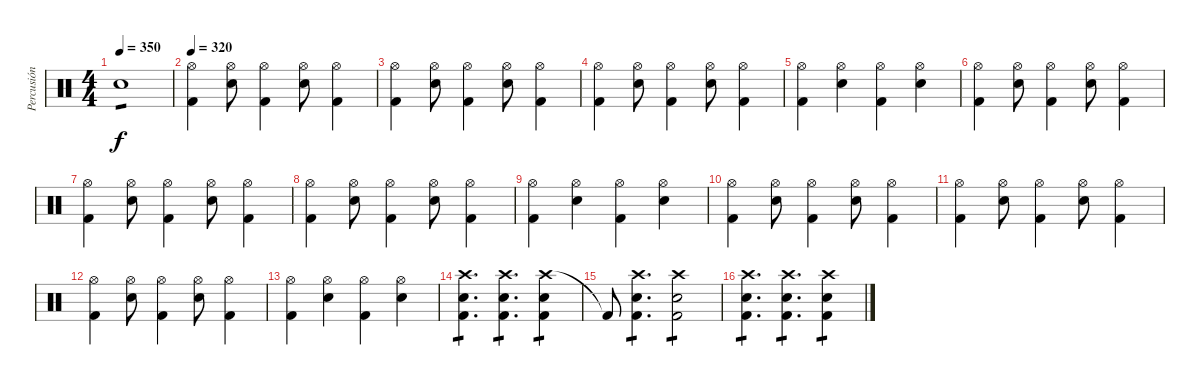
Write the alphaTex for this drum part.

\track ("Percusión" "Percusión") {instrument percussion}
\staff {score}
\articulation defaults
\ts (4 4)
\tempo 350
\clef neutral
\ks c "Electric Snare (hit)".1{tp 1 dy f}
|
\tempo 320
("Hi-Hat (open)" "Kick (hit) 2").4 ("Hi-Hat (open)" "Electric Snare (hit)").8 ("Hi-Hat (open)" "Kick (hit) 2").4 ("Hi-Hat (open)" "Electric Snare (hit)").8 ("Hi-Hat (open)" "Kick (hit) 2").4 |
("Hi-Hat (open)" "Kick (hit) 2").4 ("Hi-Hat (open)" "Electric Snare (hit)").8 ("Hi-Hat (open)" "Kick (hit) 2").4 ("Hi-Hat (open)" "Electric Snare (hit)").8 ("Hi-Hat (open)" "Kick (hit) 2").4 |
("Hi-Hat (open)" "Kick (hit) 2").4 ("Hi-Hat (open)" "Electric Snare (hit)").8 ("Hi-Hat (open)" "Kick (hit) 2").4 ("Hi-Hat (open)" "Electric Snare (hit)").8 ("Hi-Hat (open)" "Kick (hit) 2").4 |
("Hi-Hat (open)" "Kick (hit) 2").4 ("Hi-Hat (open)" "Electric Snare (hit)").4 ("Hi-Hat (open)" "Kick (hit) 2").4 ("Hi-Hat (open)" "Electric Snare (hit)").4 |
("Hi-Hat (open)" "Kick (hit) 2").4 ("Hi-Hat (open)" "Electric Snare (hit)").8 ("Hi-Hat (open)" "Kick (hit) 2").4 ("Hi-Hat (open)" "Electric Snare (hit)").8 ("Hi-Hat (open)" "Kick (hit) 2").4 |
("Hi-Hat (open)" "Kick (hit) 2").4 ("Hi-Hat (open)" "Electric Snare (hit)").8 ("Hi-Hat (open)" "Kick (hit) 2").4 ("Hi-Hat (open)" "Electric Snare (hit)").8 ("Hi-Hat (open)" "Kick (hit) 2").4 |
("Hi-Hat (open)" "Kick (hit) 2").4 ("Hi-Hat (open)" "Electric Snare (hit)").8 ("Hi-Hat (open)" "Kick (hit) 2").4 ("Hi-Hat (open)" "Electric Snare (hit)").8 ("Hi-Hat (open)" "Kick (hit) 2").4 |
("Hi-Hat (open)" "Kick (hit) 2").4 ("Hi-Hat (open)" "Electric Snare (hit)").4 ("Hi-Hat (open)" "Kick (hit) 2").4 ("Hi-Hat (open)" "Electric Snare (hit)").4 |
("Hi-Hat (open)" "Kick (hit) 2").4 ("Hi-Hat (open)" "Electric Snare (hit)").8 ("Hi-Hat (open)" "Kick (hit) 2").4 ("Hi-Hat (open)" "Electric Snare (hit)").8 ("Hi-Hat (open)" "Kick (hit) 2").4 |
("Hi-Hat (open)" "Kick (hit) 2").4 ("Hi-Hat (open)" "Electric Snare (hit)").8 ("Hi-Hat (open)" "Kick (hit) 2").4 ("Hi-Hat (open)" "Electric Snare (hit)").8 ("Hi-Hat (open)" "Kick (hit) 2").4 |
("Hi-Hat (open)" "Kick (hit) 2").4 ("Hi-Hat (open)" "Electric Snare (hit)").8 ("Hi-Hat (open)" "Kick (hit) 2").4 ("Hi-Hat (open)" "Electric Snare (hit)").8 ("Hi-Hat (open)" "Kick (hit) 2").4 |
("Hi-Hat (open)" "Kick (hit) 2").4 ("Hi-Hat (open)" "Electric Snare (hit)").4 ("Hi-Hat (open)" "Kick (hit) 2").4 ("Hi-Hat (open)" "Electric Snare (hit)").4 |
("Crash high (hit)" "Electric Snare (hit)" "Kick (hit) 2").4{d tp 1} ("Crash high (hit)" "Electric Snare (hit)" "Kick (hit) 2").4{d tp 1} ("Crash high (hit)" "Electric Snare (hit)" "Kick (hit) 2").4{tp 1} |
"Kick (hit) 2"{t}.8 ("Crash high (hit)" "Electric Snare (hit)" "Kick (hit) 2").4{d tp 1} ("Crash high (hit)" "Electric Snare (hit)" "Kick (hit) 2").2{tp 1} |
("Crash high (hit)" "Electric Snare (hit)" "Kick (hit) 2").4{d tp 1} ("Crash high (hit)" "Electric Snare (hit)" "Kick (hit) 2").4{d tp 1} ("Crash high (hit)" "Electric Snare (hit)" "Kick (hit) 2").4{tp 1}
